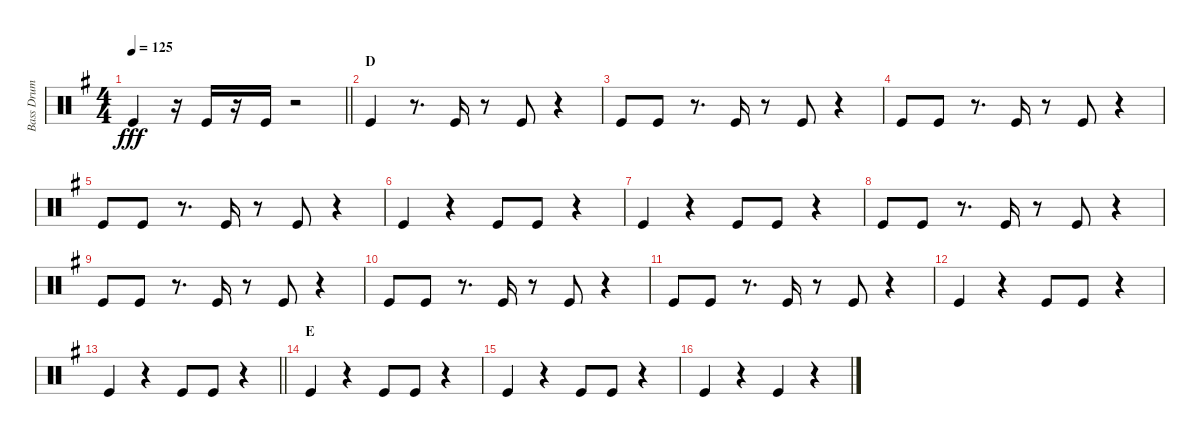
\track ("Bass Drum" "Bass Drum") {instrument percussion}
\staff {score}
\articulation defaults
\ts (4 4)
\tempo 125
\clef neutral
\barLineRight lightlight
\ks g "Kick (hit)".4{dy fff}
r.16 "Kick (hit)".16 r.16 "Kick (hit)".16 r.2 |
\section ("" "D")
"Kick (hit)".4 r.8{d} "Kick (hit)".16 r.8 "Kick (hit)".8 r.4 |
"Kick (hit)".8 "Kick (hit)".8 r.8{d} "Kick (hit)".16 r.8 "Kick (hit)".8 r.4 |
"Kick (hit)".8 "Kick (hit)".8 r.8{d} "Kick (hit)".16 r.8 "Kick (hit)".8 r.4 |
"Kick (hit)".8 "Kick (hit)".8 r.8{d} "Kick (hit)".16 r.8 "Kick (hit)".8 r.4 |
"Kick (hit)".4 r.4 "Kick (hit)".8 "Kick (hit)".8 r.4 |
"Kick (hit)".4 r.4 "Kick (hit)".8 "Kick (hit)".8 r.4 |
"Kick (hit)".8 "Kick (hit)".8 r.8{d} "Kick (hit)".16 r.8 "Kick (hit)".8 r.4 |
"Kick (hit)".8 "Kick (hit)".8 r.8{d} "Kick (hit)".16 r.8 "Kick (hit)".8 r.4 |
"Kick (hit)".8 "Kick (hit)".8 r.8{d} "Kick (hit)".16 r.8 "Kick (hit)".8 r.4 |
"Kick (hit)".8 "Kick (hit)".8 r.8{d} "Kick (hit)".16 r.8 "Kick (hit)".8 r.4 |
"Kick (hit)".4 r.4 "Kick (hit)".8 "Kick (hit)".8 r.4 |
\barLineRight lightlight "Kick (hit)".4
r.4 "Kick (hit)".8 "Kick (hit)".8 r.4 |
\section ("" "E")
"Kick (hit)".4 r.4 "Kick (hit)".8 "Kick (hit)".8 r.4 |
"Kick (hit)".4 r.4 "Kick (hit)".8 "Kick (hit)".8 r.4 |
"Kick (hit)".4 r.4 "Kick (hit)".4 r.4
